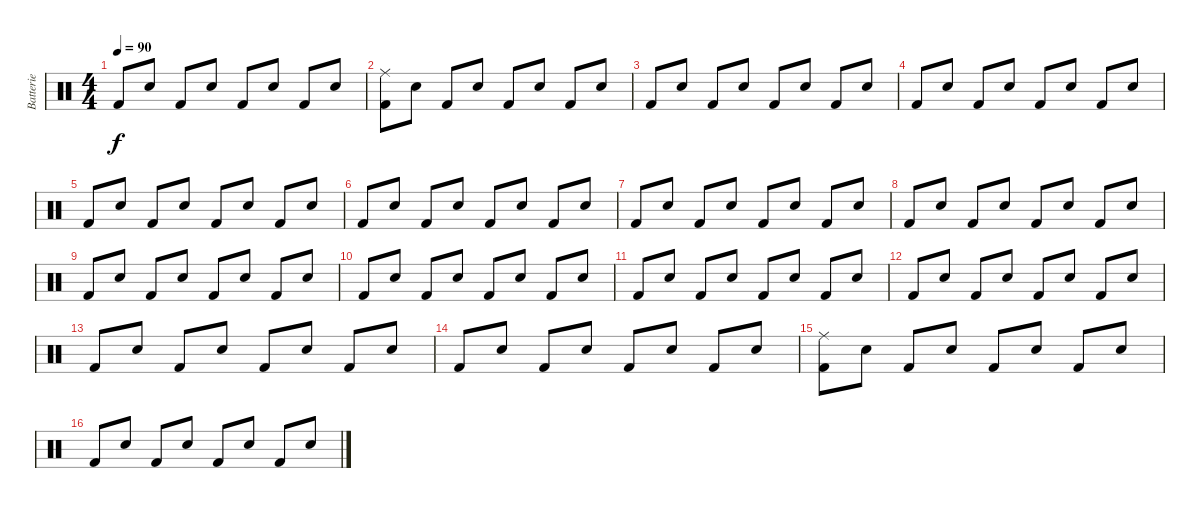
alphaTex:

\track ("Batterie" "Batterie") {instrument percussion}
\staff {score}
\articulation defaults
\ts (4 4)
\tempo 90
\clef neutral
\ks c "Kick (hit) 2".8{dy f} "Electric Snare (hit)".8 "Kick (hit) 2".8 "Electric Snare (hit)".8 "Kick (hit) 2".8 "Electric Snare (hit)".8 "Kick (hit) 2".8 "Electric Snare (hit)".8
|
("Ride (middle)" "Kick (hit) 2").8 "Electric Snare (hit)".8 "Kick (hit) 2".8 "Electric Snare (hit)".8 "Kick (hit) 2".8 "Electric Snare (hit)".8 "Kick (hit) 2".8 "Electric Snare (hit)".8 |
"Kick (hit) 2".8 "Electric Snare (hit)".8 "Kick (hit) 2".8 "Electric Snare (hit)".8 "Kick (hit) 2".8 "Electric Snare (hit)".8 "Kick (hit) 2".8 "Electric Snare (hit)".8 |
"Kick (hit) 2".8 "Electric Snare (hit)".8 "Kick (hit) 2".8 "Electric Snare (hit)".8 "Kick (hit) 2".8 "Electric Snare (hit)".8 "Kick (hit) 2".8 "Electric Snare (hit)".8 |
"Kick (hit) 2".8 "Electric Snare (hit)".8 "Kick (hit) 2".8 "Electric Snare (hit)".8 "Kick (hit) 2".8 "Electric Snare (hit)".8 "Kick (hit) 2".8 "Electric Snare (hit)".8 |
"Kick (hit) 2".8 "Electric Snare (hit)".8 "Kick (hit) 2".8 "Electric Snare (hit)".8 "Kick (hit) 2".8 "Electric Snare (hit)".8 "Kick (hit) 2".8 "Electric Snare (hit)".8 |
"Kick (hit) 2".8 "Electric Snare (hit)".8 "Kick (hit) 2".8 "Electric Snare (hit)".8 "Kick (hit) 2".8 "Electric Snare (hit)".8 "Kick (hit) 2".8 "Electric Snare (hit)".8 |
"Kick (hit) 2".8 "Electric Snare (hit)".8 "Kick (hit) 2".8 "Electric Snare (hit)".8 "Kick (hit) 2".8 "Electric Snare (hit)".8 "Kick (hit) 2".8 "Electric Snare (hit)".8 |
"Kick (hit) 2".8 "Electric Snare (hit)".8 "Kick (hit) 2".8 "Electric Snare (hit)".8 "Kick (hit) 2".8 "Electric Snare (hit)".8 "Kick (hit) 2".8 "Electric Snare (hit)".8 |
"Kick (hit) 2".8 "Electric Snare (hit)".8 "Kick (hit) 2".8 "Electric Snare (hit)".8 "Kick (hit) 2".8 "Electric Snare (hit)".8 "Kick (hit) 2".8 "Electric Snare (hit)".8 |
"Kick (hit) 2".8 "Electric Snare (hit)".8 "Kick (hit) 2".8 "Electric Snare (hit)".8 "Kick (hit) 2".8 "Electric Snare (hit)".8 "Kick (hit) 2".8 "Electric Snare (hit)".8 |
"Kick (hit) 2".8 "Electric Snare (hit)".8 "Kick (hit) 2".8 "Electric Snare (hit)".8 "Kick (hit) 2".8 "Electric Snare (hit)".8 "Kick (hit) 2".8 "Electric Snare (hit)".8 |
"Kick (hit) 2".8 "Electric Snare (hit)".8 "Kick (hit) 2".8 "Electric Snare (hit)".8 "Kick (hit) 2".8 "Electric Snare (hit)".8 "Kick (hit) 2".8 "Electric Snare (hit)".8 |
"Kick (hit) 2".8 "Electric Snare (hit)".8 "Kick (hit) 2".8 "Electric Snare (hit)".8 "Kick (hit) 2".8 "Electric Snare (hit)".8 "Kick (hit) 2".8 "Electric Snare (hit)".8 |
("Ride (middle)" "Kick (hit) 2").8 "Electric Snare (hit)".8 "Kick (hit) 2".8 "Electric Snare (hit)".8 "Kick (hit) 2".8 "Electric Snare (hit)".8 "Kick (hit) 2".8 "Electric Snare (hit)".8 |
"Kick (hit) 2".8 "Electric Snare (hit)".8 "Kick (hit) 2".8 "Electric Snare (hit)".8 "Kick (hit) 2".8 "Electric Snare (hit)".8 "Kick (hit) 2".8 "Electric Snare (hit)".8
